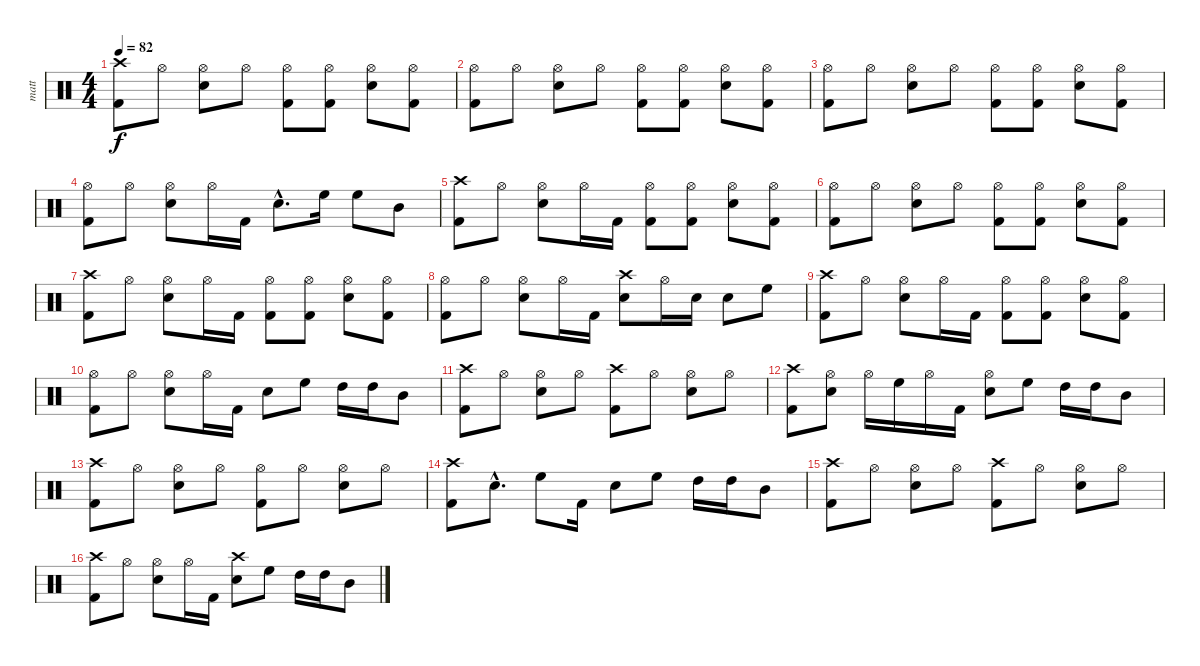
\track ("matt" "matt") {instrument percussion}
\staff {score}
\articulation defaults
\ts (4 4)
\tempo 82
\clef neutral
\ks c
("Crash high (hit)" "Kick (hit) 2").8{dy f} "Hi-Hat (open)".8 ("Hi-Hat (open)" "Electric Snare (hit)").8 "Hi-Hat (open)".8 ("Hi-Hat (open)" "Kick (hit) 2").8 ("Hi-Hat (open)" "Kick (hit) 2").8 ("Hi-Hat (open)" "Electric Snare (hit)").8 ("Hi-Hat (open)" "Kick (hit) 2").8 |
("Hi-Hat (open)" "Kick (hit) 2").8 "Hi-Hat (open)".8 ("Hi-Hat (open)" "Electric Snare (hit)").8 "Hi-Hat (open)".8 ("Hi-Hat (open)" "Kick (hit) 2").8 ("Hi-Hat (open)" "Kick (hit) 2").8 ("Hi-Hat (open)" "Electric Snare (hit)").8 ("Hi-Hat (open)" "Kick (hit) 2").8 |
("Hi-Hat (open)" "Kick (hit) 2").8 "Hi-Hat (open)".8 ("Hi-Hat (open)" "Electric Snare (hit)").8 "Hi-Hat (open)".8 ("Hi-Hat (open)" "Kick (hit) 2").8 ("Hi-Hat (open)" "Kick (hit) 2").8 ("Hi-Hat (open)" "Electric Snare (hit)").8 ("Hi-Hat (open)" "Kick (hit) 2").8 |
("Hi-Hat (open)" "Kick (hit) 2").8 "Hi-Hat (open)".8 ("Hi-Hat (open)" "Electric Snare (hit)").8 "Hi-Hat (open)".16 "Kick (hit) 2".16 "Electric Snare (hit)"{hac}.8{d} "High Floor Tom (hit)".16 "High Floor Tom (hit)".8 "Mid Tom (hit)".8 |
("Crash high (hit)" "Kick (hit) 2").8 "Hi-Hat (open)".8 ("Hi-Hat (open)" "Electric Snare (hit)").8 "Hi-Hat (open)".16 "Kick (hit) 2".16 ("Hi-Hat (open)" "Kick (hit) 2").8 ("Hi-Hat (open)" "Kick (hit) 2").8 ("Hi-Hat (open)" "Electric Snare (hit)").8 ("Hi-Hat (open)" "Kick (hit) 2").8 |
("Hi-Hat (open)" "Kick (hit) 2").8 "Hi-Hat (open)".8 ("Hi-Hat (open)" "Electric Snare (hit)").8 "Hi-Hat (open)".8 ("Hi-Hat (open)" "Kick (hit) 2").8 ("Hi-Hat (open)" "Kick (hit) 2").8 ("Hi-Hat (open)" "Electric Snare (hit)").8 ("Hi-Hat (open)" "Kick (hit) 2").8 |
("Crash high (hit)" "Kick (hit) 2").8 "Hi-Hat (open)".8 ("Hi-Hat (open)" "Electric Snare (hit)").8 "Hi-Hat (open)".16 "Kick (hit) 2".16 ("Hi-Hat (open)" "Kick (hit) 2").8 ("Hi-Hat (open)" "Kick (hit) 2").8 ("Hi-Hat (open)" "Electric Snare (hit)").8 ("Hi-Hat (open)" "Kick (hit) 2").8 |
("Hi-Hat (open)" "Kick (hit) 2").8 "Hi-Hat (open)".8 ("Hi-Hat (open)" "Electric Snare (hit)").8 "Hi-Hat (open)".16 "Kick (hit) 2".16 ("Crash high (hit)" "Electric Snare (hit)").8 "Hi-Hat (open)".16 "Electric Snare (hit)".16 "Electric Snare (hit)".8 "High Floor Tom (hit)".8 |
("Crash high (hit)" "Kick (hit) 2").8 "Hi-Hat (open)".8 ("Hi-Hat (open)" "Electric Snare (hit)").8 "Hi-Hat (open)".16 "Kick (hit) 2".16 ("Hi-Hat (open)" "Kick (hit) 2").8 ("Hi-Hat (open)" "Kick (hit) 2").8 ("Hi-Hat (open)" "Electric Snare (hit)").8 ("Hi-Hat (open)" "Kick (hit) 2").8 |
("Hi-Hat (open)" "Kick (hit) 2").8 "Hi-Hat (open)".8 ("Hi-Hat (open)" "Electric Snare (hit)").8 "Hi-Hat (open)".16 "Kick (hit) 2".16 "Electric Snare (hit)".8 "High Floor Tom (hit)".8 "High Tom (hit)".16 "High Tom (hit)".16 "Mid Tom (hit)".8 |
("Crash high (hit)" "Kick (hit) 2").8 "Hi-Hat (open)".8 ("Hi-Hat (open)" "Electric Snare (hit)").8 "Hi-Hat (open)".8 ("Crash high (hit)" "Kick (hit) 2").8 "Hi-Hat (open)".8 ("Hi-Hat (open)" "Electric Snare (hit)").8 "Hi-Hat (open)".8 |
("Crash high (hit)" "Kick (hit) 2").8 ("Hi-Hat (open)" "Electric Snare (hit)").8 "Hi-Hat (open)".16 "High Floor Tom (hit)".16 "Hi-Hat (open)".16 "Kick (hit) 2".16 ("Hi-Hat (open)" "Electric Snare (hit)").8 "High Floor Tom (hit)".8 "High Tom (hit)".16 "High Tom (hit)".16 "Mid Tom (hit)".8 |
("Crash high (hit)" "Kick (hit) 2").8 "Hi-Hat (open)".8 ("Hi-Hat (open)" "Electric Snare (hit)").8 "Hi-Hat (open)".8 ("Hi-Hat (open)" "Kick (hit) 2").8 "Hi-Hat (open)".8 ("Hi-Hat (open)" "Electric Snare (hit)").8 "Hi-Hat (open)".8 |
("Crash high (hit)" "Kick (hit) 2").8 "Electric Snare (hit)"{hac}.8{d} "High Floor Tom (hit)".8 "Kick (hit) 2".16 "Electric Snare (hit)".8 "High Floor Tom (hit)".8 "High Tom (hit)".16 "High Tom (hit)".16 "Mid Tom (hit)".8 |
("Crash high (hit)" "Kick (hit) 2").8 "Hi-Hat (open)".8 ("Hi-Hat (open)" "Electric Snare (hit)").8 "Hi-Hat (open)".8 ("Crash high (hit)" "Kick (hit) 2").8 "Hi-Hat (open)".8 ("Hi-Hat (open)" "Electric Snare (hit)").8 "Hi-Hat (open)".8 |
("Crash high (hit)" "Kick (hit) 2").8 "Hi-Hat (open)".8 ("Hi-Hat (open)" "Electric Snare (hit)").8 "Hi-Hat (open)".16 "Kick (hit) 2".16 ("Crash high (hit)" "Electric Snare (hit)").8 "High Floor Tom (hit)".8 "High Tom (hit)".16 "High Tom (hit)".16 "Mid Tom (hit)".8
